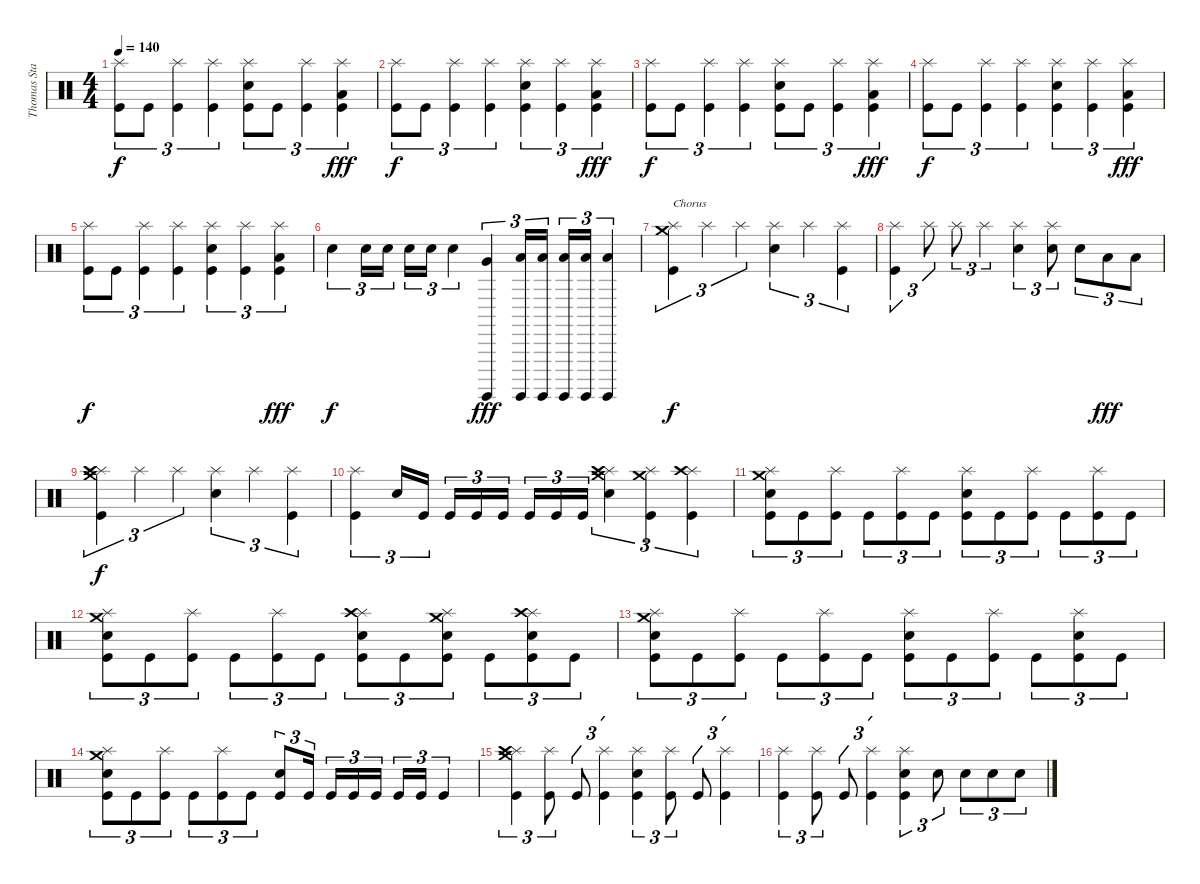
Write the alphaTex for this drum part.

\track ("Thomas Stauch" "Thomas Sta") {instrument percussion}
\staff {score}
\articulation defaults
\ts (4 4)
\tempo 140
\clef neutral
\ks c
("Splash (hit)" "Kick (hit)").8{tu (3 2) dy f} "Kick (hit)".8{tu (3 2)} ("Splash (hit)" "Kick (hit)").4{tu (3 2)} ("Splash (hit)" "Kick (hit)").4{tu (3 2)} ("Splash (hit)" "Electric Snare (hit)" "Kick (hit)").8{tu (3 2)} "Kick (hit)".8{tu (3 2)} ("Splash (hit)" "Kick (hit)").4{tu (3 2)} ("Splash (hit)" "Low Floor Tom (hit)" "Kick (hit)").4{tu (3 2) dy fff} |
("Splash (hit)" "Kick (hit)").8{tu (3 2) dy f} "Kick (hit)".8{tu (3 2)} ("Splash (hit)" "Kick (hit)").4{tu (3 2)} ("Splash (hit)" "Kick (hit)").4{tu (3 2)} ("Splash (hit)" "Electric Snare (hit)" "Kick (hit)").4{tu (3 2)} ("Splash (hit)" "Kick (hit)").4{tu (3 2)} ("Splash (hit)" "Low Floor Tom (hit)" "Kick (hit)").4{tu (3 2) dy fff} |
("Splash (hit)" "Kick (hit)").8{tu (3 2) dy f} "Kick (hit)".8{tu (3 2)} ("Splash (hit)" "Kick (hit)").4{tu (3 2)} ("Splash (hit)" "Kick (hit)").4{tu (3 2)} ("Splash (hit)" "Electric Snare (hit)" "Kick (hit)").8{tu (3 2)} "Kick (hit)".8{tu (3 2)} ("Splash (hit)" "Kick (hit)").4{tu (3 2)} ("Splash (hit)" "Low Floor Tom (hit)" "Kick (hit)").4{tu (3 2) dy fff} |
("Splash (hit)" "Kick (hit)").8{tu (3 2) dy f} "Kick (hit)".8{tu (3 2)} ("Splash (hit)" "Kick (hit)").4{tu (3 2)} ("Splash (hit)" "Kick (hit)").4{tu (3 2)} ("Splash (hit)" "Electric Snare (hit)" "Kick (hit)").4{tu (3 2)} ("Splash (hit)" "Kick (hit)").4{tu (3 2)} ("Splash (hit)" "Low Floor Tom (hit)" "Kick (hit)").4{tu (3 2) dy fff} |
("Splash (hit)" "Kick (hit)").8{tu (3 2) dy f} "Kick (hit)".8{tu (3 2)} ("Splash (hit)" "Kick (hit)").4{tu (3 2)} ("Splash (hit)" "Kick (hit)").4{tu (3 2)} ("Splash (hit)" "Electric Snare (hit)" "Kick (hit)").4{tu (3 2)} ("Splash (hit)" "Kick (hit)").4{tu (3 2)} ("Splash (hit)" "Low Floor Tom (hit)" "Kick (hit)").4{tu (3 2) dy fff} |
"Electric Snare (hit)".4{tu (3 2) dy f} "Electric Snare (hit)".16{tu (3 2)} "Electric Snare (hit)".16{tu (3 2)} "Electric Snare (hit)".16{tu (3 2)} "Electric Snare (hit)".16{tu (3 2)} "Electric Snare (hit)".4{tu (3 2)} ("Surdo (hit)" "Very Low Tom (hit)").4{tu (3 2) dy fff} ("Surdo (hit)" "Low Floor Tom (hit)").16{tu (3 2)} ("Surdo (hit)" "Low Floor Tom (hit)").16{tu (3 2)} ("Surdo (hit)" "Low Floor Tom (hit)").16{tu (3 2)} ("Surdo (hit)" "Low Floor Tom (hit)").16{tu (3 2)} ("Surdo (hit)" "Low Floor Tom (hit)").4{tu (3 2)} |
("Crash medium (hit)" "Splash (hit)" "Kick (hit)").4{tu (3 2) txt "Chorus" dy f} "Splash (hit)".4{tu (3 2)} "Splash (hit)".4{tu (3 2)} ("Splash (hit)" "Electric Snare (hit)").4{tu (3 2)} "Splash (hit)".4{tu (3 2)} ("Splash (hit)" "Kick (hit)").4{tu (3 2)} |
("Splash (hit)" "Kick (hit)").4{tu (3 2)} "Splash (hit)".8{tu (3 2)} "Splash (hit)".8{tu (3 2)} "Splash (hit)".4{tu (3 2)} ("Splash (hit)" "Electric Snare (hit)").4{tu (3 2)} ("Splash (hit)" "Electric Snare (hit)").8{tu (3 2)} "Electric Snare (hit)".8{tu (3 2)} "Low Floor Tom (hit)".8{tu (3 2) dy fff} "Low Floor Tom (hit)".8{tu (3 2)} |
("Crash medium (hit)" "Splash (hit)" "Crash high (hit)" "Kick (hit)").4{tu (3 2) dy f} "Splash (hit)".4{tu (3 2)} "Splash (hit)".4{tu (3 2)} ("Splash (hit)" "Electric Snare (hit)").4{tu (3 2)} "Splash (hit)".4{tu (3 2)} ("Splash (hit)" "Kick (hit)").4{tu (3 2)} |
("Splash (hit)" "Kick (hit)").4{tu (3 2)} "Electric Snare (hit)".16{tu (3 2)} "Kick (hit)".16{tu (3 2)} "Kick (hit)".16{tu (3 2)} "Kick (hit)".16{tu (3 2)} "Kick (hit)".16{tu (3 2)} "Kick (hit)".16{tu (3 2)} "Kick (hit)".16{tu (3 2)} "Kick (hit)".16{tu (3 2)} ("Crash medium (hit)" "Splash (hit)" "Crash high (hit)" "Electric Snare (hit)").4{tu (3 2)} ("Crash medium (hit)" "Splash (hit)" "Kick (hit)").4{tu (3 2)} ("Splash (hit)" "Crash high (hit)" "Kick (hit)").4{tu (3 2)} |
("Crash medium (hit)" "Splash (hit)" "Electric Snare (hit)" "Kick (hit)").8{tu (3 2)} "Kick (hit)".8{tu (3 2)} ("Splash (hit)" "Kick (hit)").8{tu (3 2)} "Kick (hit)".8{tu (3 2)} ("Splash (hit)" "Kick (hit)").8{tu (3 2)} "Kick (hit)".8{tu (3 2)} ("Splash (hit)" "Electric Snare (hit)" "Kick (hit)").8{tu (3 2)} "Kick (hit)".8{tu (3 2)} ("Splash (hit)" "Kick (hit)").8{tu (3 2)} "Kick (hit)".8{tu (3 2)} ("Splash (hit)" "Kick (hit)").8{tu (3 2)} "Kick (hit)".8{tu (3 2)} |
("Crash medium (hit)" "Splash (hit)" "Electric Snare (hit)" "Kick (hit)").8{tu (3 2)} "Kick (hit)".8{tu (3 2)} ("Splash (hit)" "Kick (hit)").8{tu (3 2)} "Kick (hit)".8{tu (3 2)} ("Splash (hit)" "Kick (hit)").8{tu (3 2)} "Kick (hit)".8{tu (3 2)} ("Splash (hit)" "Crash high (hit)" "Electric Snare (hit)" "Kick (hit)").8{tu (3 2)} "Kick (hit)".8{tu (3 2)} ("Crash medium (hit)" "Splash (hit)" "Electric Snare (hit)" "Kick (hit)").8{tu (3 2)} "Kick (hit)".8{tu (3 2)} ("Splash (hit)" "Crash high (hit)" "Electric Snare (hit)" "Kick (hit)").8{tu (3 2)} "Kick (hit)".8{tu (3 2)} |
("Crash medium (hit)" "Splash (hit)" "Electric Snare (hit)" "Kick (hit)").8{tu (3 2)} "Kick (hit)".8{tu (3 2)} ("Splash (hit)" "Kick (hit)").8{tu (3 2)} "Kick (hit)".8{tu (3 2)} ("Splash (hit)" "Kick (hit)").8{tu (3 2)} "Kick (hit)".8{tu (3 2)} ("Splash (hit)" "Electric Snare (hit)" "Kick (hit)").8{tu (3 2)} "Kick (hit)".8{tu (3 2)} ("Splash (hit)" "Kick (hit)").8{tu (3 2)} "Kick (hit)".8{tu (3 2)} ("Splash (hit)" "Electric Snare (hit)" "Kick (hit)").8{tu (3 2)} "Kick (hit)".8{tu (3 2)} |
("Crash medium (hit)" "Splash (hit)" "Electric Snare (hit)" "Kick (hit)").8{tu (3 2)} "Kick (hit)".8{tu (3 2)} ("Splash (hit)" "Kick (hit)").8{tu (3 2)} "Kick (hit)".8{tu (3 2)} ("Splash (hit)" "Kick (hit)").8{tu (3 2)} "Kick (hit)".8{tu (3 2)} ("Electric Snare (hit)" "Kick (hit)").8{tu (3 2)} "Kick (hit)".16{tu (3 2)} "Kick (hit)".16{tu (3 2)} "Kick (hit)".16{tu (3 2)} "Kick (hit)".16{tu (3 2)} "Kick (hit)".16{tu (3 2)} "Kick (hit)".16{tu (3 2)} "Kick (hit)".4{tu (3 2)} |
("Crash medium (hit)" "Splash (hit)" "Crash high (hit)" "Kick (hit)").4{tu (3 2)} ("Splash (hit)" "Kick (hit)").8{tu (3 2)} "Kick (hit)".8{tu (3 2)} ("Splash (hit)" "Kick (hit)").4{tu (3 2)} ("Splash (hit)" "Electric Snare (hit)" "Kick (hit)").4{tu (3 2)} ("Splash (hit)" "Kick (hit)").8{tu (3 2)} "Kick (hit)".8{tu (3 2)} ("Splash (hit)" "Kick (hit)").4{tu (3 2)} |
("Splash (hit)" "Kick (hit)").4{tu (3 2)} ("Splash (hit)" "Kick (hit)").8{tu (3 2)} "Kick (hit)".8{tu (3 2)} ("Splash (hit)" "Kick (hit)").4{tu (3 2)} ("Splash (hit)" "Electric Snare (hit)" "Kick (hit)").4{tu (3 2)} "Electric Snare (hit)".8{tu (3 2)} "Electric Snare (hit)".8{tu (3 2)} "Electric Snare (hit)".8{tu (3 2)} "Electric Snare (hit)".8{tu (3 2)}
